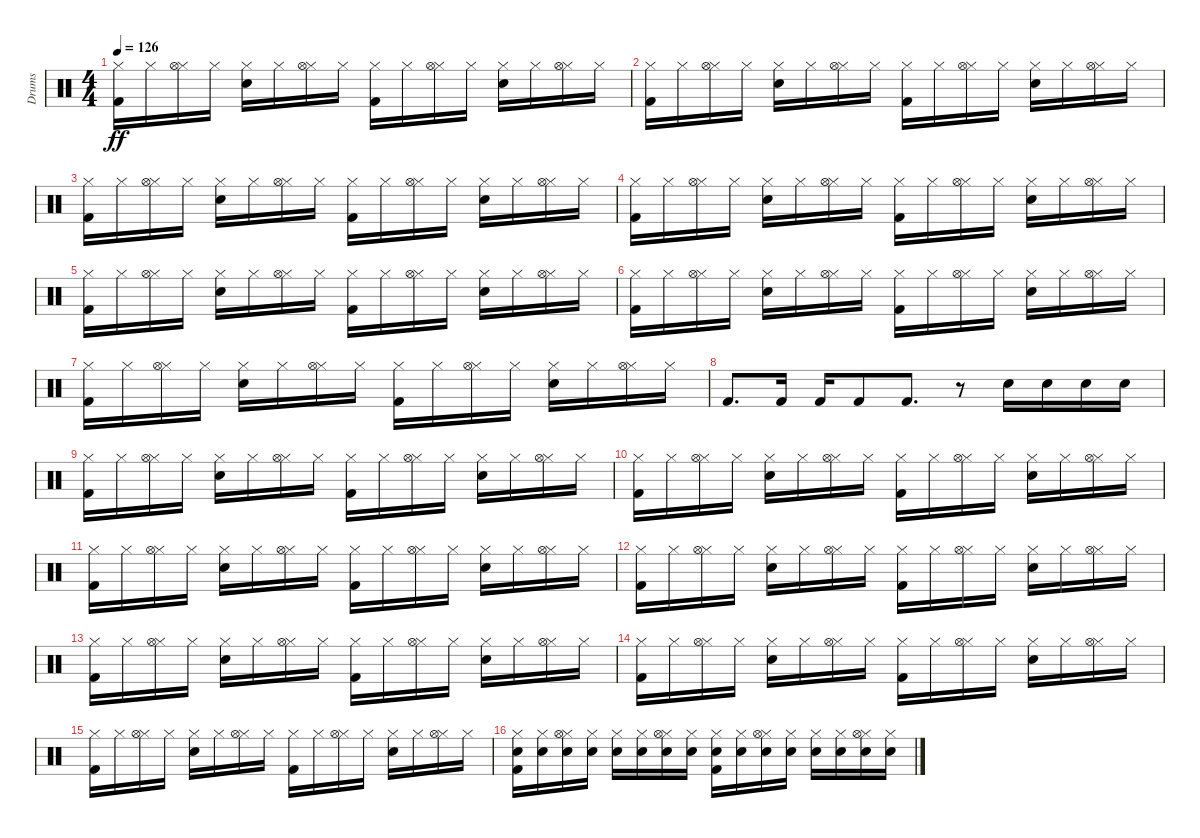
\track ("Drums" "Drums") {instrument percussion}
\staff {score}
\articulation defaults
\ts (4 4)
\tempo 126
\clef neutral
\ks c
("Kick (hit) 2" "Hi-Hat (closed)").16{dy ff} "Hi-Hat (closed)".16 ("Hi-Hat (closed)" "Hi-Hat (open)").16 "Hi-Hat (closed)".16 ("Electric Snare (hit)" "Hi-Hat (closed)").16 "Hi-Hat (closed)".16 ("Hi-Hat (closed)" "Hi-Hat (open)").16 "Hi-Hat (closed)".16 ("Kick (hit) 2" "Hi-Hat (closed)").16 "Hi-Hat (closed)".16 ("Hi-Hat (closed)" "Hi-Hat (open)").16 "Hi-Hat (closed)".16 ("Electric Snare (hit)" "Hi-Hat (closed)").16 "Hi-Hat (closed)".16 ("Hi-Hat (closed)" "Hi-Hat (open)").16 "Hi-Hat (closed)".16 |
("Kick (hit) 2" "Hi-Hat (closed)").16 "Hi-Hat (closed)".16 ("Hi-Hat (closed)" "Hi-Hat (open)").16 "Hi-Hat (closed)".16 ("Electric Snare (hit)" "Hi-Hat (closed)").16 "Hi-Hat (closed)".16 ("Hi-Hat (closed)" "Hi-Hat (open)").16 "Hi-Hat (closed)".16 ("Kick (hit) 2" "Hi-Hat (closed)").16 "Hi-Hat (closed)".16 ("Hi-Hat (closed)" "Hi-Hat (open)").16 "Hi-Hat (closed)".16 ("Electric Snare (hit)" "Hi-Hat (closed)").16 "Hi-Hat (closed)".16 ("Hi-Hat (closed)" "Hi-Hat (open)").16 "Hi-Hat (closed)".16 |
("Kick (hit) 2" "Hi-Hat (closed)").16 "Hi-Hat (closed)".16 ("Hi-Hat (closed)" "Hi-Hat (open)").16 "Hi-Hat (closed)".16 ("Electric Snare (hit)" "Hi-Hat (closed)").16 "Hi-Hat (closed)".16 ("Hi-Hat (closed)" "Hi-Hat (open)").16 "Hi-Hat (closed)".16 ("Kick (hit) 2" "Hi-Hat (closed)").16 "Hi-Hat (closed)".16 ("Hi-Hat (closed)" "Hi-Hat (open)").16 "Hi-Hat (closed)".16 ("Electric Snare (hit)" "Hi-Hat (closed)").16 "Hi-Hat (closed)".16 ("Hi-Hat (closed)" "Hi-Hat (open)").16 "Hi-Hat (closed)".16 |
("Kick (hit) 2" "Hi-Hat (closed)").16 "Hi-Hat (closed)".16 ("Hi-Hat (closed)" "Hi-Hat (open)").16 "Hi-Hat (closed)".16 ("Electric Snare (hit)" "Hi-Hat (closed)").16 "Hi-Hat (closed)".16 ("Hi-Hat (closed)" "Hi-Hat (open)").16 "Hi-Hat (closed)".16 ("Kick (hit) 2" "Hi-Hat (closed)").16 "Hi-Hat (closed)".16 ("Hi-Hat (closed)" "Hi-Hat (open)").16 "Hi-Hat (closed)".16 ("Electric Snare (hit)" "Hi-Hat (closed)").16 "Hi-Hat (closed)".16 ("Hi-Hat (closed)" "Hi-Hat (open)").16 "Hi-Hat (closed)".16 |
("Kick (hit) 2" "Hi-Hat (closed)").16 "Hi-Hat (closed)".16 ("Hi-Hat (closed)" "Hi-Hat (open)").16 "Hi-Hat (closed)".16 ("Electric Snare (hit)" "Hi-Hat (closed)").16 "Hi-Hat (closed)".16 ("Hi-Hat (closed)" "Hi-Hat (open)").16 "Hi-Hat (closed)".16 ("Kick (hit) 2" "Hi-Hat (closed)").16 "Hi-Hat (closed)".16 ("Hi-Hat (closed)" "Hi-Hat (open)").16 "Hi-Hat (closed)".16 ("Electric Snare (hit)" "Hi-Hat (closed)").16 "Hi-Hat (closed)".16 ("Hi-Hat (closed)" "Hi-Hat (open)").16 "Hi-Hat (closed)".16 |
("Kick (hit) 2" "Hi-Hat (closed)").16 "Hi-Hat (closed)".16 ("Hi-Hat (closed)" "Hi-Hat (open)").16 "Hi-Hat (closed)".16 ("Electric Snare (hit)" "Hi-Hat (closed)").16 "Hi-Hat (closed)".16 ("Hi-Hat (closed)" "Hi-Hat (open)").16 "Hi-Hat (closed)".16 ("Kick (hit) 2" "Hi-Hat (closed)").16 "Hi-Hat (closed)".16 ("Hi-Hat (closed)" "Hi-Hat (open)").16 "Hi-Hat (closed)".16 ("Electric Snare (hit)" "Hi-Hat (closed)").16 "Hi-Hat (closed)".16 ("Hi-Hat (closed)" "Hi-Hat (open)").16 "Hi-Hat (closed)".16 |
("Kick (hit) 2" "Hi-Hat (closed)").16 "Hi-Hat (closed)".16 ("Hi-Hat (closed)" "Hi-Hat (open)").16 "Hi-Hat (closed)".16 ("Electric Snare (hit)" "Hi-Hat (closed)").16 "Hi-Hat (closed)".16 ("Hi-Hat (closed)" "Hi-Hat (open)").16 "Hi-Hat (closed)".16 ("Kick (hit) 2" "Hi-Hat (closed)").16 "Hi-Hat (closed)".16 ("Hi-Hat (closed)" "Hi-Hat (open)").16 "Hi-Hat (closed)".16 ("Electric Snare (hit)" "Hi-Hat (closed)").16 "Hi-Hat (closed)".16 ("Hi-Hat (closed)" "Hi-Hat (open)").16 "Hi-Hat (closed)".16 |
"Kick (hit) 2".8{d} "Kick (hit) 2".16 "Kick (hit) 2".16 "Kick (hit) 2".8 "Kick (hit) 2".8{d} r.8 "Electric Snare (hit)".16 "Electric Snare (hit)".16 "Electric Snare (hit)".16 "Electric Snare (hit)".16 |
("Kick (hit) 2" "Hi-Hat (closed)").16 "Hi-Hat (closed)".16 ("Hi-Hat (closed)" "Hi-Hat (open)").16 "Hi-Hat (closed)".16 ("Electric Snare (hit)" "Hi-Hat (closed)").16 "Hi-Hat (closed)".16 ("Hi-Hat (closed)" "Hi-Hat (open)").16 "Hi-Hat (closed)".16 ("Kick (hit) 2" "Hi-Hat (closed)").16 "Hi-Hat (closed)".16 ("Hi-Hat (closed)" "Hi-Hat (open)").16 "Hi-Hat (closed)".16 ("Electric Snare (hit)" "Hi-Hat (closed)").16 "Hi-Hat (closed)".16 ("Hi-Hat (closed)" "Hi-Hat (open)").16 "Hi-Hat (closed)".16 |
("Kick (hit) 2" "Hi-Hat (closed)").16 "Hi-Hat (closed)".16 ("Hi-Hat (closed)" "Hi-Hat (open)").16 "Hi-Hat (closed)".16 ("Electric Snare (hit)" "Hi-Hat (closed)").16 "Hi-Hat (closed)".16 ("Hi-Hat (closed)" "Hi-Hat (open)").16 "Hi-Hat (closed)".16 ("Kick (hit) 2" "Hi-Hat (closed)").16 "Hi-Hat (closed)".16 ("Hi-Hat (closed)" "Hi-Hat (open)").16 "Hi-Hat (closed)".16 ("Electric Snare (hit)" "Hi-Hat (closed)").16 "Hi-Hat (closed)".16 ("Hi-Hat (closed)" "Hi-Hat (open)").16 "Hi-Hat (closed)".16 |
("Kick (hit) 2" "Hi-Hat (closed)").16 "Hi-Hat (closed)".16 ("Hi-Hat (closed)" "Hi-Hat (open)").16 "Hi-Hat (closed)".16 ("Electric Snare (hit)" "Hi-Hat (closed)").16 "Hi-Hat (closed)".16 ("Hi-Hat (closed)" "Hi-Hat (open)").16 "Hi-Hat (closed)".16 ("Kick (hit) 2" "Hi-Hat (closed)").16 "Hi-Hat (closed)".16 ("Hi-Hat (closed)" "Hi-Hat (open)").16 "Hi-Hat (closed)".16 ("Electric Snare (hit)" "Hi-Hat (closed)").16 "Hi-Hat (closed)".16 ("Hi-Hat (closed)" "Hi-Hat (open)").16 "Hi-Hat (closed)".16 |
("Kick (hit) 2" "Hi-Hat (closed)").16 "Hi-Hat (closed)".16 ("Hi-Hat (closed)" "Hi-Hat (open)").16 "Hi-Hat (closed)".16 ("Electric Snare (hit)" "Hi-Hat (closed)").16 "Hi-Hat (closed)".16 ("Hi-Hat (closed)" "Hi-Hat (open)").16 "Hi-Hat (closed)".16 ("Kick (hit) 2" "Hi-Hat (closed)").16 "Hi-Hat (closed)".16 ("Hi-Hat (closed)" "Hi-Hat (open)").16 "Hi-Hat (closed)".16 ("Electric Snare (hit)" "Hi-Hat (closed)").16 "Hi-Hat (closed)".16 ("Hi-Hat (closed)" "Hi-Hat (open)").16 "Hi-Hat (closed)".16 |
("Kick (hit) 2" "Hi-Hat (closed)").16 "Hi-Hat (closed)".16 ("Hi-Hat (closed)" "Hi-Hat (open)").16 "Hi-Hat (closed)".16 ("Electric Snare (hit)" "Hi-Hat (closed)").16 "Hi-Hat (closed)".16 ("Hi-Hat (closed)" "Hi-Hat (open)").16 "Hi-Hat (closed)".16 ("Kick (hit) 2" "Hi-Hat (closed)").16 "Hi-Hat (closed)".16 ("Hi-Hat (closed)" "Hi-Hat (open)").16 "Hi-Hat (closed)".16 ("Electric Snare (hit)" "Hi-Hat (closed)").16 "Hi-Hat (closed)".16 ("Hi-Hat (closed)" "Hi-Hat (open)").16 "Hi-Hat (closed)".16 |
("Kick (hit) 2" "Hi-Hat (closed)").16 "Hi-Hat (closed)".16 ("Hi-Hat (closed)" "Hi-Hat (open)").16 "Hi-Hat (closed)".16 ("Electric Snare (hit)" "Hi-Hat (closed)").16 "Hi-Hat (closed)".16 ("Hi-Hat (closed)" "Hi-Hat (open)").16 "Hi-Hat (closed)".16 ("Kick (hit) 2" "Hi-Hat (closed)").16 "Hi-Hat (closed)".16 ("Hi-Hat (closed)" "Hi-Hat (open)").16 "Hi-Hat (closed)".16 ("Electric Snare (hit)" "Hi-Hat (closed)").16 "Hi-Hat (closed)".16 ("Hi-Hat (closed)" "Hi-Hat (open)").16 "Hi-Hat (closed)".16 |
("Kick (hit) 2" "Hi-Hat (closed)").16 "Hi-Hat (closed)".16 ("Hi-Hat (closed)" "Hi-Hat (open)").16 "Hi-Hat (closed)".16 ("Electric Snare (hit)" "Hi-Hat (closed)").16 "Hi-Hat (closed)".16 ("Hi-Hat (closed)" "Hi-Hat (open)").16 "Hi-Hat (closed)".16 ("Kick (hit) 2" "Hi-Hat (closed)").16 "Hi-Hat (closed)".16 ("Hi-Hat (closed)" "Hi-Hat (open)").16 "Hi-Hat (closed)".16 ("Electric Snare (hit)" "Hi-Hat (closed)").16 "Hi-Hat (closed)".16 ("Hi-Hat (closed)" "Hi-Hat (open)").16 "Hi-Hat (closed)".16 |
("Kick (hit) 2" "Electric Snare (hit)" "Hi-Hat (closed)").16 ("Electric Snare (hit)" "Hi-Hat (closed)").16 ("Electric Snare (hit)" "Hi-Hat (closed)" "Hi-Hat (open)").16 ("Electric Snare (hit)" "Hi-Hat (closed)").16 ("Electric Snare (hit)" "Hi-Hat (closed)").16 ("Electric Snare (hit)" "Hi-Hat (closed)").16 ("Electric Snare (hit)" "Hi-Hat (closed)" "Hi-Hat (open)").16 ("Electric Snare (hit)" "Hi-Hat (closed)").16 ("Kick (hit) 2" "Electric Snare (hit)" "Hi-Hat (closed)").16 ("Electric Snare (hit)" "Hi-Hat (closed)").16 ("Electric Snare (hit)" "Hi-Hat (closed)" "Hi-Hat (open)").16 ("Electric Snare (hit)" "Hi-Hat (closed)").16 ("Electric Snare (hit)" "Hi-Hat (closed)").16 ("Electric Snare (hit)" "Hi-Hat (closed)").16 ("Electric Snare (hit)" "Hi-Hat (closed)" "Hi-Hat (open)").16 ("Electric Snare (hit)" "Hi-Hat (closed)").16
